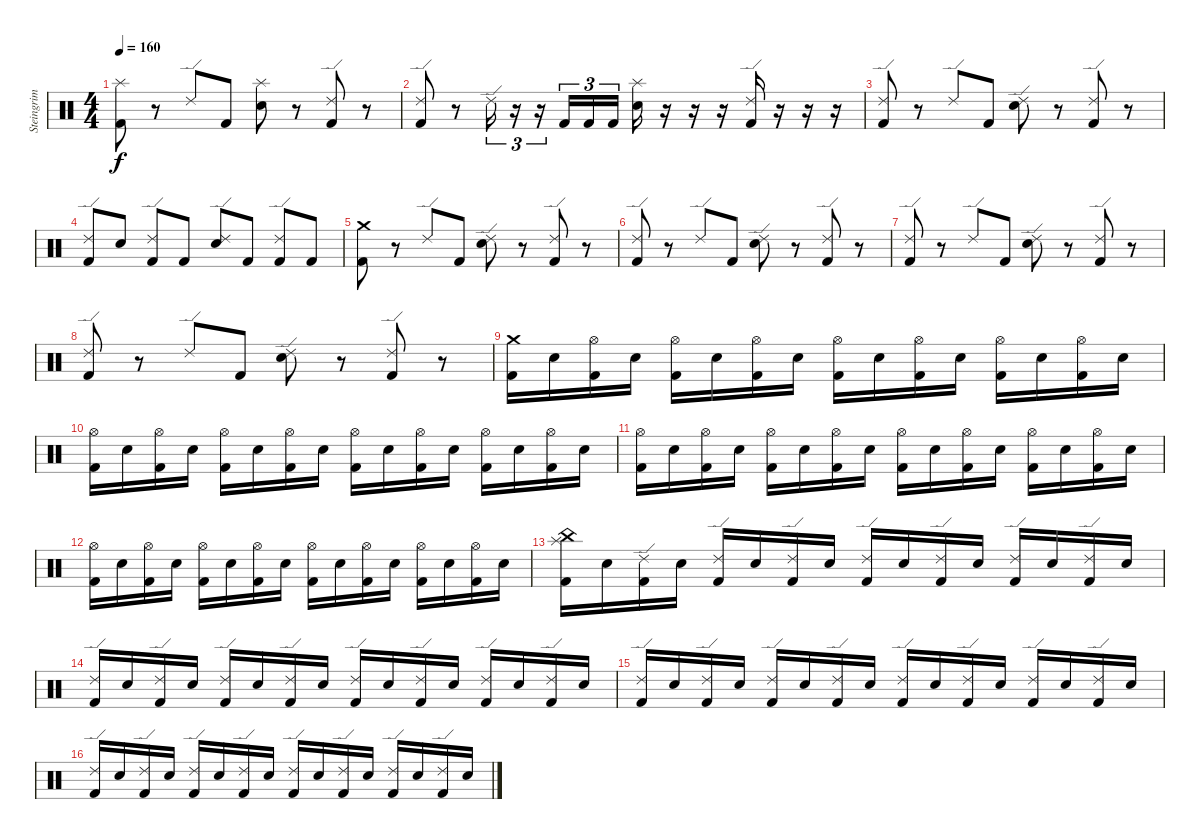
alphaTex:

\track ("Steingrim Trommur" "Steingrim ") {instrument percussion}
\staff {score}
\articulation defaults
\ts (4 4)
\tempo 160
\clef neutral
\ks c
("Splash (hit)" "Kick (hit) 2").8{dy f} r.8 "Ride (edge) 2".8 "Kick (hit) 2".8 ("Splash (hit)" "Electric Snare (hit)").8 r.8 ("Ride (edge) 2" "Kick (hit) 2").8 r.8 |
("Ride (edge) 2" "Kick (hit) 2").8 r.8 "Ride (edge) 2".16{tu (3 2)} r.16{tu (3 2)} r.16{tu (3 2)} "Kick (hit) 2".16{tu (3 2)} "Kick (hit) 2".16{tu (3 2)} "Kick (hit) 2".16{tu (3 2)} ("Splash (hit)" "Electric Snare (hit)").16 r.16 r.16 r.16 ("Ride (edge) 2" "Kick (hit) 2").16 r.16 r.16 r.16 |
("Ride (edge) 2" "Kick (hit) 2").8 r.8 "Ride (edge) 2".8 "Kick (hit) 2".8 ("Ride (edge) 2" "Electric Snare (hit)").8 r.8 ("Ride (edge) 2" "Kick (hit) 2").8 r.8 |
("Ride (edge) 2" "Kick (hit) 2").8 "Electric Snare (hit)".8 ("Ride (edge) 2" "Kick (hit) 2").8 "Kick (hit) 2".8 ("Ride (edge) 2" "Electric Snare (hit)").8 "Kick (hit) 2".8 ("Ride (edge) 2" "Kick (hit) 2").8 "Kick (hit) 2".8 |
("Crash medium (hit)" "Kick (hit) 2").8 r.8 "Ride (edge) 2".8 "Kick (hit) 2".8 ("Ride (edge) 2" "Electric Snare (hit)").8 r.8 ("Ride (edge) 2" "Kick (hit) 2").8 r.8 |
("Ride (edge) 2" "Kick (hit) 2").8 r.8 "Ride (edge) 2".8 "Kick (hit) 2".8 ("Ride (edge) 2" "Electric Snare (hit)").8 r.8 ("Ride (edge) 2" "Kick (hit) 2").8 r.8 |
("Ride (edge) 2" "Kick (hit) 2").8 r.8 "Ride (edge) 2".8 "Kick (hit) 2".8 ("Ride (edge) 2" "Electric Snare (hit)").8 r.8 ("Ride (edge) 2" "Kick (hit) 2").8 r.8 |
("Ride (edge) 2" "Kick (hit) 2").8 r.8 "Ride (edge) 2".8 "Kick (hit) 2".8 ("Ride (edge) 2" "Electric Snare (hit)").8 r.8 ("Ride (edge) 2" "Kick (hit) 2").8 r.8 |
("Crash medium (hit)" "Kick (hit) 2").16 "Electric Snare (hit)".16 ("Hi-Hat (open)" "Kick (hit) 2").16 "Electric Snare (hit)".16 ("Hi-Hat (open)" "Kick (hit) 2").16 "Electric Snare (hit)".16 ("Hi-Hat (open)" "Kick (hit) 2").16 "Electric Snare (hit)".16 ("Hi-Hat (open)" "Kick (hit) 2").16 "Electric Snare (hit)".16 ("Hi-Hat (open)" "Kick (hit) 2").16 "Electric Snare (hit)".16 ("Hi-Hat (open)" "Kick (hit) 2").16 "Electric Snare (hit)".16 ("Hi-Hat (open)" "Kick (hit) 2").16 "Electric Snare (hit)".16 |
("Hi-Hat (open)" "Kick (hit) 2").16 "Electric Snare (hit)".16 ("Hi-Hat (open)" "Kick (hit) 2").16 "Electric Snare (hit)".16 ("Hi-Hat (open)" "Kick (hit) 2").16 "Electric Snare (hit)".16 ("Hi-Hat (open)" "Kick (hit) 2").16 "Electric Snare (hit)".16 ("Hi-Hat (open)" "Kick (hit) 2").16 "Electric Snare (hit)".16 ("Hi-Hat (open)" "Kick (hit) 2").16 "Electric Snare (hit)".16 ("Hi-Hat (open)" "Kick (hit) 2").16 "Electric Snare (hit)".16 ("Hi-Hat (open)" "Kick (hit) 2").16 "Electric Snare (hit)".16 |
("Hi-Hat (open)" "Kick (hit) 2").16 "Electric Snare (hit)".16 ("Hi-Hat (open)" "Kick (hit) 2").16 "Electric Snare (hit)".16 ("Hi-Hat (open)" "Kick (hit) 2").16 "Electric Snare (hit)".16 ("Hi-Hat (open)" "Kick (hit) 2").16 "Electric Snare (hit)".16 ("Hi-Hat (open)" "Kick (hit) 2").16 "Electric Snare (hit)".16 ("Hi-Hat (open)" "Kick (hit) 2").16 "Electric Snare (hit)".16 ("Hi-Hat (open)" "Kick (hit) 2").16 "Electric Snare (hit)".16 ("Hi-Hat (open)" "Kick (hit) 2").16 "Electric Snare (hit)".16 |
("Hi-Hat (open)" "Kick (hit) 2").16 "Electric Snare (hit)".16 ("Hi-Hat (open)" "Kick (hit) 2").16 "Electric Snare (hit)".16 ("Hi-Hat (open)" "Kick (hit) 2").16 "Electric Snare (hit)".16 ("Hi-Hat (open)" "Kick (hit) 2").16 "Electric Snare (hit)".16 ("Hi-Hat (open)" "Kick (hit) 2").16 "Electric Snare (hit)".16 ("Hi-Hat (open)" "Kick (hit) 2").16 "Electric Snare (hit)".16 ("Hi-Hat (open)" "Kick (hit) 2").16 "Electric Snare (hit)".16 ("Hi-Hat (open)" "Kick (hit) 2").16 "Electric Snare (hit)".16 |
("Splash (hit)" "China (hit)" "Kick (hit) 2").16 "Electric Snare (hit)".16 ("Ride (edge) 2" "Kick (hit) 2").16 "Electric Snare (hit)".16 ("Ride (edge) 2" "Kick (hit) 2").16 "Electric Snare (hit)".16 ("Ride (edge) 2" "Kick (hit) 2").16 "Electric Snare (hit)".16 ("Ride (edge) 2" "Kick (hit) 2").16 "Electric Snare (hit)".16 ("Ride (edge) 2" "Kick (hit) 2").16 "Electric Snare (hit)".16 ("Ride (edge) 2" "Kick (hit) 2").16 "Electric Snare (hit)".16 ("Ride (edge) 2" "Kick (hit) 2").16 "Electric Snare (hit)".16 |
("Ride (edge) 2" "Kick (hit) 2").16 "Electric Snare (hit)".16 ("Ride (edge) 2" "Kick (hit) 2").16 "Electric Snare (hit)".16 ("Ride (edge) 2" "Kick (hit) 2").16 "Electric Snare (hit)".16 ("Ride (edge) 2" "Kick (hit) 2").16 "Electric Snare (hit)".16 ("Ride (edge) 2" "Kick (hit) 2").16 "Electric Snare (hit)".16 ("Ride (edge) 2" "Kick (hit) 2").16 "Electric Snare (hit)".16 ("Ride (edge) 2" "Kick (hit) 2").16 "Electric Snare (hit)".16 ("Ride (edge) 2" "Kick (hit) 2").16 "Electric Snare (hit)".16 |
("Ride (edge) 2" "Kick (hit) 2").16 "Electric Snare (hit)".16 ("Ride (edge) 2" "Kick (hit) 2").16 "Electric Snare (hit)".16 ("Ride (edge) 2" "Kick (hit) 2").16 "Electric Snare (hit)".16 ("Ride (edge) 2" "Kick (hit) 2").16 "Electric Snare (hit)".16 ("Ride (edge) 2" "Kick (hit) 2").16 "Electric Snare (hit)".16 ("Ride (edge) 2" "Kick (hit) 2").16 "Electric Snare (hit)".16 ("Ride (edge) 2" "Kick (hit) 2").16 "Electric Snare (hit)".16 ("Ride (edge) 2" "Kick (hit) 2").16 "Electric Snare (hit)".16 |
("Ride (edge) 2" "Kick (hit) 2").16 "Electric Snare (hit)".16 ("Ride (edge) 2" "Kick (hit) 2").16 "Electric Snare (hit)".16 ("Ride (edge) 2" "Kick (hit) 2").16 "Electric Snare (hit)".16 ("Ride (edge) 2" "Kick (hit) 2").16 "Electric Snare (hit)".16 ("Ride (edge) 2" "Kick (hit) 2").16 "Electric Snare (hit)".16 ("Ride (edge) 2" "Kick (hit) 2").16 "Electric Snare (hit)".16 ("Ride (edge) 2" "Kick (hit) 2").16 "Electric Snare (hit)".16 ("Ride (edge) 2" "Kick (hit) 2").16 "Electric Snare (hit)".16
